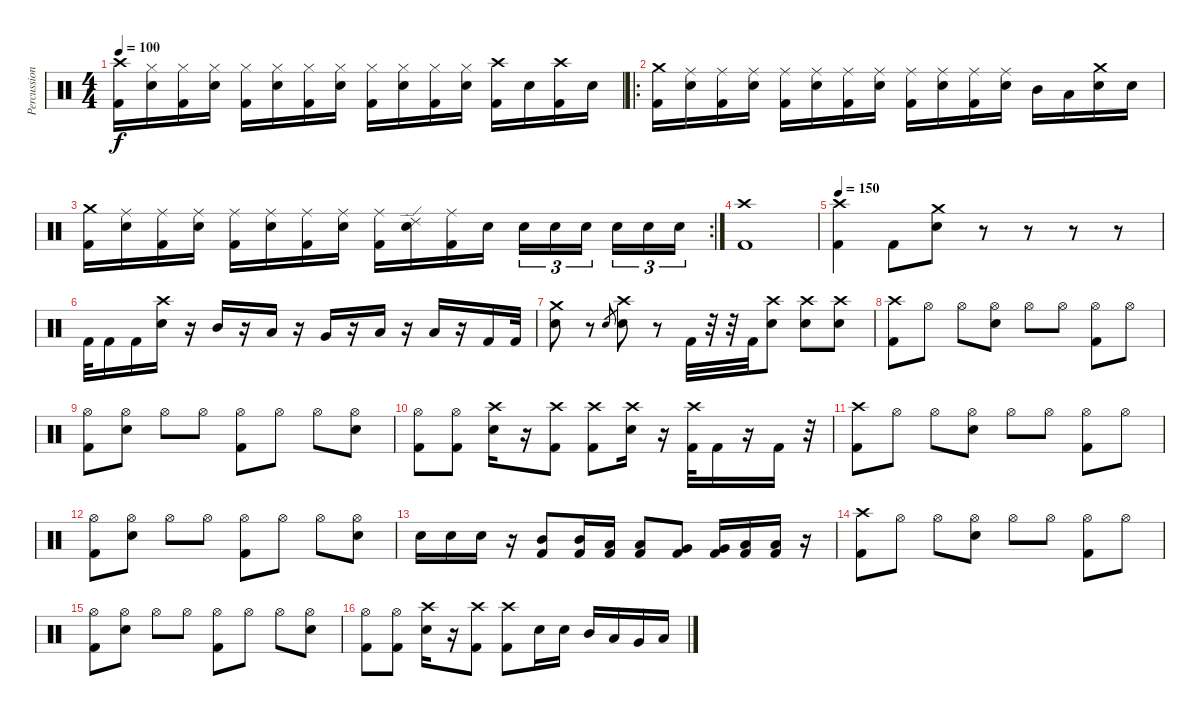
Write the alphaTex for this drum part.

\track ("Percussion" "Percussion") {instrument percussion}
\staff {score}
\articulation defaults
\ts (4 4)
\tempo 100
\clef neutral
\ks c
("Crash high (hit)" "Kick (hit) 2").16{dy f} ("Hi-Hat (closed)" "Snare (hit) 2").16 ("Hi-Hat (closed)" "Kick (hit) 2").16 ("Hi-Hat (closed)" "Snare (hit) 2").16 ("Hi-Hat (closed)" "Kick (hit) 2").16 ("Hi-Hat (closed)" "Snare (hit) 2").16 ("Hi-Hat (closed)" "Kick (hit) 2").16 ("Hi-Hat (closed)" "Snare (hit) 2").16 ("Hi-Hat (closed)" "Kick (hit) 2").16 ("Hi-Hat (closed)" "Snare (hit) 2").16 ("Hi-Hat (closed)" "Kick (hit) 2").16 ("Hi-Hat (closed)" "Snare (hit) 2").16 ("Crash high (hit)" "Kick (hit) 2").16 "Snare (hit) 2".16 ("Crash high (hit)" "Kick (hit) 2").16 "Snare (hit) 2".16 |
\ro
("Crash medium (hit)" "Kick (hit) 2").16 ("Ride (middle)" "Snare (hit) 2").16 ("Ride (middle)" "Kick (hit) 2").16 ("Ride (middle)" "Snare (hit) 2").16 ("Ride (middle)" "Kick (hit) 2").16 ("Ride (middle)" "Snare (hit) 2").16 ("Ride (middle)" "Kick (hit) 2").16 ("Ride (middle)" "Snare (hit) 2").16 ("Ride (middle)" "Kick (hit) 2").16 ("Ride (middle)" "Snare (hit) 2").16 ("Ride (middle)" "Kick (hit) 2").16 ("Ride (middle)" "Snare (hit) 2").16 "Mid Tom (hit)".16 "Low Tom (hit)".16 ("Crash medium (hit)" "Snare (hit) 2").16 "Snare (hit) 2".16 |
\rc 2
("Crash medium (hit)" "Kick (hit) 2").16 ("Ride (middle)" "Snare (hit) 2").16 ("Ride (middle)" "Kick (hit) 2").16 ("Ride (middle)" "Snare (hit) 2").16 ("Ride (middle)" "Kick (hit) 2").16 ("Ride (middle)" "Snare (hit) 2").16 ("Ride (middle)" "Kick (hit) 2").16 ("Ride (middle)" "Snare (hit) 2").16 ("Ride (middle)" "Kick (hit) 2").16 ("Ride (edge) 2" "Snare (hit) 2").16 ("Ride (middle)" "Kick (hit) 2").16 "Snare (hit) 2".16 "Snare (hit) 2".16{tu (3 2)} "Snare (hit) 2".16{tu (3 2)} "Snare (hit) 2".16{tu (3 2) beam splitsecondary} "Snare (hit) 2".16{tu (3 2)} "Snare (hit) 2".16{tu (3 2)} "Snare (hit) 2".16{tu (3 2)} |
("Crash high (hit)" "Kick (hit) 2").1 |
\tempo 150
("Crash high (hit)" "Kick (hit) 2").4 "Kick (hit) 2".8 ("Crash medium (hit)" "Snare (hit) 2").8 r.8 r.8 r.8 r.8 |
"Kick (hit) 2".32 "Kick (hit) 2".16 "Kick (hit) 2".16 ("Crash high (hit)" "Snare (hit) 2").16 r.16 "Mid Tom (hit)".16 r.16 "Low Tom (hit)".16 r.16 "Very Low Tom (hit)".16 r.16 "Low Floor Tom (hit)".16 r.16 "Low Floor Tom (hit)".16 r.16 "Kick (hit) 2".16 "Kick (hit) 2".32 |
("Crash medium (hit)" "Snare (hit) 2").8 r.8 "Snare (hit) 2".8{gr} ("Crash high (hit)" "Snare (hit) 2").8 r.8 "Kick (hit) 2".32 r.32 r.32 "Kick (hit) 2".32 ("Crash high (hit)" "Snare (hit) 2").8 ("Crash high (hit)" "Snare (hit) 2").8 ("Crash high (hit)" "Snare (hit) 2").8 |
("Crash high (hit)" "Kick (hit) 2").8 "Hi-Hat (open)".8 "Hi-Hat (open)".8 ("Hi-Hat (open)" "Snare (hit) 2").8 "Hi-Hat (open)".8 "Hi-Hat (open)".8 ("Hi-Hat (open)" "Kick (hit) 2").8 "Hi-Hat (open)".8 |
("Hi-Hat (open)" "Kick (hit) 2").8 ("Hi-Hat (open)" "Snare (hit) 2").8 "Hi-Hat (open)".8 "Hi-Hat (open)".8 ("Hi-Hat (open)" "Kick (hit) 2").8 "Hi-Hat (open)".8 "Hi-Hat (open)".8 ("Hi-Hat (open)" "Snare (hit) 2").8 |
("Hi-Hat (open)" "Kick (hit) 2").8 ("Hi-Hat (open)" "Kick (hit) 2").8 ("Crash high (hit)" "Snare (hit) 2").16 r.16 ("Crash high (hit)" "Kick (hit) 2").8 ("Crash high (hit)" "Kick (hit) 2").8 ("Crash high (hit)" "Snare (hit) 2").16 r.16 ("Crash high (hit)" "Kick (hit) 2").32 "Kick (hit) 2".16 r.16 "Kick (hit) 2".16 r.32 |
("Crash high (hit)" "Kick (hit) 2").8 "Hi-Hat (open)".8 "Hi-Hat (open)".8 ("Hi-Hat (open)" "Snare (hit) 2").8 "Hi-Hat (open)".8 "Hi-Hat (open)".8 ("Hi-Hat (open)" "Kick (hit) 2").8 "Hi-Hat (open)".8 |
("Hi-Hat (open)" "Kick (hit) 2").8 ("Hi-Hat (open)" "Snare (hit) 2").8 "Hi-Hat (open)".8 "Hi-Hat (open)".8 ("Hi-Hat (open)" "Kick (hit) 2").8 "Hi-Hat (open)".8 "Hi-Hat (open)".8 ("Hi-Hat (open)" "Snare (hit) 2").8 |
"Snare (hit) 2".16 "Snare (hit) 2".16 "Snare (hit) 2".16 r.16 ("Mid Tom (hit)" "Kick (hit) 2").8 ("Mid Tom (hit)" "Kick (hit) 2").16 ("Low Tom (hit)" "Kick (hit) 2").16 ("Low Tom (hit)" "Kick (hit) 2").8 ("Very Low Tom (hit)" "Kick (hit) 2").8 ("Very Low Tom (hit)" "Kick (hit) 2").16 ("Low Floor Tom (hit)" "Kick (hit) 2").16 ("Low Floor Tom (hit)" "Kick (hit) 2").16 r.16 |
("Crash high (hit)" "Kick (hit) 2").8 "Hi-Hat (open)".8 "Hi-Hat (open)".8 ("Hi-Hat (open)" "Snare (hit) 2").8 "Hi-Hat (open)".8 "Hi-Hat (open)".8 ("Hi-Hat (open)" "Kick (hit) 2").8 "Hi-Hat (open)".8 |
("Hi-Hat (open)" "Kick (hit) 2").8 ("Hi-Hat (open)" "Snare (hit) 2").8 "Hi-Hat (open)".8 "Hi-Hat (open)".8 ("Hi-Hat (open)" "Kick (hit) 2").8 "Hi-Hat (open)".8 "Hi-Hat (open)".8 ("Hi-Hat (open)" "Snare (hit) 2").8 |
("Hi-Hat (open)" "Kick (hit) 2").8 ("Hi-Hat (open)" "Kick (hit) 2").8 ("Crash high (hit)" "Snare (hit) 2").16 r.16 ("Crash high (hit)" "Kick (hit) 2").8 ("Crash high (hit)" "Kick (hit) 2").8 "Snare (hit) 2".16 "Snare (hit) 2".16 "Mid Tom (hit)".16 "Low Tom (hit)".16 "Very Low Tom (hit)".16 "Low Floor Tom (hit)".16
